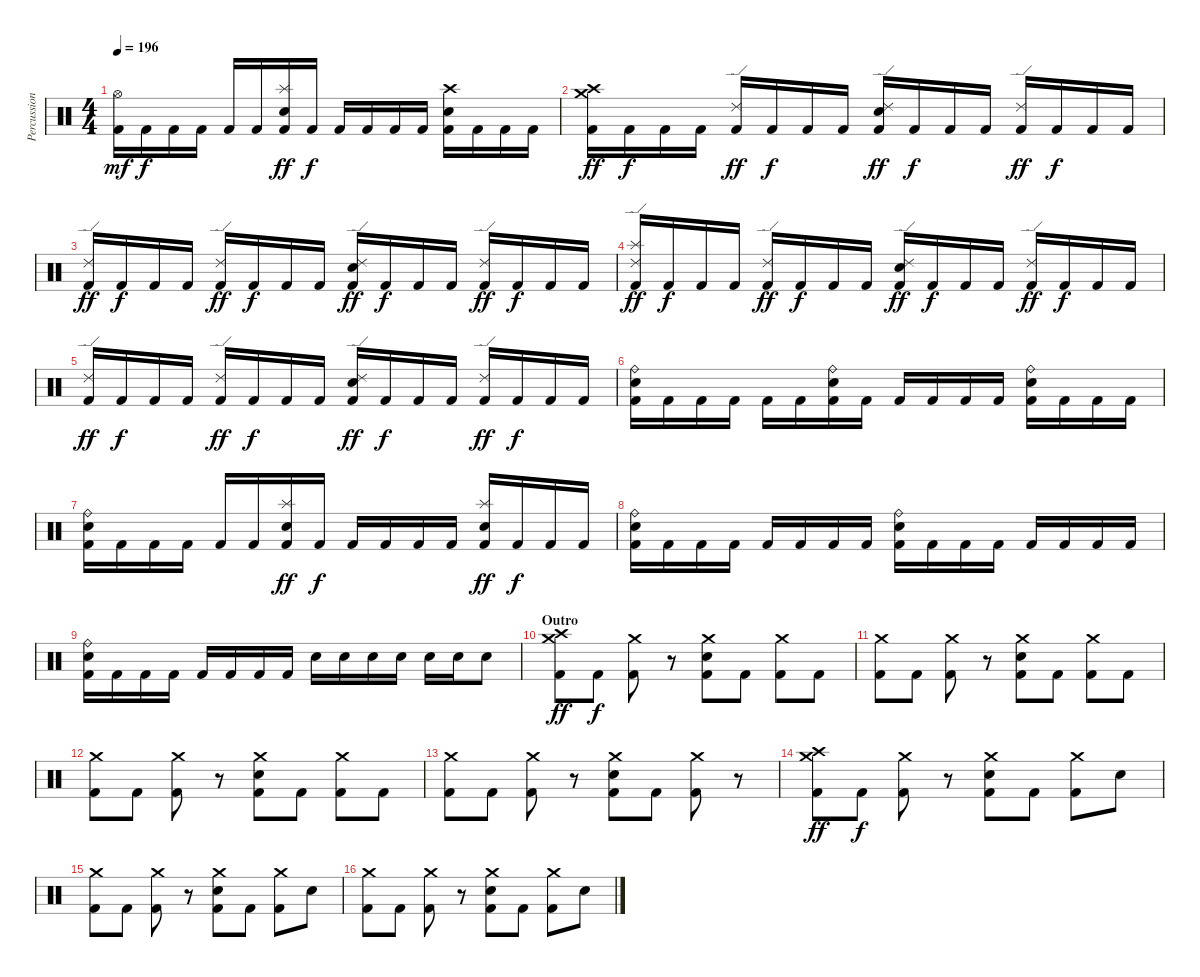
\track ("Percussions" "Percussion") {instrument percussion}
\staff {score}
\articulation defaults
\ts (4 4)
\tempo 196
\clef neutral
\ks c
("Hi-Hat (open)" "Kick (hit) 2").16{dy mf} "Kick (hit) 2".16{dy f} "Kick (hit) 2".16 "Kick (hit) 2".16 "Kick (hit) 2".16 "Kick (hit) 2".16 ("Splash (hit)" "Electric Snare (hit)" "Kick (hit) 2").16{dy ff} "Kick (hit) 2".16{dy f} "Kick (hit) 2".16 "Kick (hit) 2".16 "Kick (hit) 2".16 "Kick (hit) 2".16 ("Crash high (hit)" "Electric Snare (hit)" "Kick (hit) 2").16 "Kick (hit) 2".16 "Kick (hit) 2".16 "Kick (hit) 2".16 |
("Crash high (hit)" "Crash medium (hit)" "Kick (hit) 2").16{dy ff} "Kick (hit) 2".16{dy f} "Kick (hit) 2".16 "Kick (hit) 2".16 ("Ride (edge) 2" "Kick (hit) 2").16{dy ff} "Kick (hit) 2".16{dy f} "Kick (hit) 2".16 "Kick (hit) 2".16 ("Ride (edge) 2" "Electric Snare (hit)" "Kick (hit) 2").16{dy ff} "Kick (hit) 2".16{dy f} "Kick (hit) 2".16 "Kick (hit) 2".16 ("Ride (edge) 2" "Kick (hit) 2").16{dy ff} "Kick (hit) 2".16{dy f} "Kick (hit) 2".16 "Kick (hit) 2".16 |
("Ride (edge) 2" "Kick (hit) 2").16{dy ff} "Kick (hit) 2".16{dy f} "Kick (hit) 2".16 "Kick (hit) 2".16 ("Ride (edge) 2" "Kick (hit) 2").16{dy ff} "Kick (hit) 2".16{dy f} "Kick (hit) 2".16 "Kick (hit) 2".16 ("Ride (edge) 2" "Electric Snare (hit)" "Kick (hit) 2").16{dy ff} "Kick (hit) 2".16{dy f} "Kick (hit) 2".16 "Kick (hit) 2".16 ("Ride (edge) 2" "Kick (hit) 2").16{dy ff} "Kick (hit) 2".16{dy f} "Kick (hit) 2".16 "Kick (hit) 2".16 |
("Splash (hit)" "Ride (edge) 2" "Kick (hit) 2").16{dy ff} "Kick (hit) 2".16{dy f} "Kick (hit) 2".16 "Kick (hit) 2".16 ("Ride (edge) 2" "Kick (hit) 2").16{dy ff} "Kick (hit) 2".16{dy f} "Kick (hit) 2".16 "Kick (hit) 2".16 ("Ride (edge) 2" "Electric Snare (hit)" "Kick (hit) 2").16{dy ff} "Kick (hit) 2".16{dy f} "Kick (hit) 2".16 "Kick (hit) 2".16 ("Ride (edge) 2" "Kick (hit) 2").16{dy ff} "Kick (hit) 2".16{dy f} "Kick (hit) 2".16 "Kick (hit) 2".16 |
("Ride (edge) 2" "Kick (hit) 2").16{dy ff} "Kick (hit) 2".16{dy f} "Kick (hit) 2".16 "Kick (hit) 2".16 ("Ride (edge) 2" "Kick (hit) 2").16{dy ff} "Kick (hit) 2".16{dy f} "Kick (hit) 2".16 "Kick (hit) 2".16 ("Ride (edge) 2" "Electric Snare (hit)" "Kick (hit) 2").16{dy ff} "Kick (hit) 2".16{dy f} "Kick (hit) 2".16 "Kick (hit) 2".16 ("Ride (edge) 2" "Kick (hit) 2").16{dy ff} "Kick (hit) 2".16{dy f} "Kick (hit) 2".16 "Kick (hit) 2".16 |
("Ride (bell)" "Electric Snare (hit)" "Kick (hit) 2").16 "Kick (hit) 2".16 "Kick (hit) 2".16 "Kick (hit) 2".16 "Kick (hit) 2".16 "Kick (hit) 2".16 ("Ride (bell)" "Electric Snare (hit)" "Kick (hit) 2").16 "Kick (hit) 2".16 "Kick (hit) 2".16 "Kick (hit) 2".16 "Kick (hit) 2".16 "Kick (hit) 2".16 ("Ride (bell)" "Electric Snare (hit)" "Kick (hit) 2").16 "Kick (hit) 2".16 "Kick (hit) 2".16 "Kick (hit) 2".16 |
("Ride (bell)" "Electric Snare (hit)" "Kick (hit) 2").16 "Kick (hit) 2".16 "Kick (hit) 2".16 "Kick (hit) 2".16 "Kick (hit) 2".16 "Kick (hit) 2".16 ("Splash (hit)" "Electric Snare (hit)" "Kick (hit) 2").16{dy ff} "Kick (hit) 2".16{dy f} "Kick (hit) 2".16 "Kick (hit) 2".16 "Kick (hit) 2".16 "Kick (hit) 2".16 ("Splash (hit)" "Electric Snare (hit)" "Kick (hit) 2").16{dy ff} "Kick (hit) 2".16{dy f} "Kick (hit) 2".16 "Kick (hit) 2".16 |
("Ride (bell)" "Electric Snare (hit)" "Kick (hit) 2").16 "Kick (hit) 2".16 "Kick (hit) 2".16 "Kick (hit) 2".16 "Kick (hit) 2".16 "Kick (hit) 2".16 "Kick (hit) 2".16 "Kick (hit) 2".16 ("Ride (bell)" "Electric Snare (hit)" "Kick (hit) 2").16 "Kick (hit) 2".16 "Kick (hit) 2".16 "Kick (hit) 2".16 "Kick (hit) 2".16 "Kick (hit) 2".16 "Kick (hit) 2".16 "Kick (hit) 2".16 |
("Ride (bell)" "Electric Snare (hit)" "Kick (hit) 2").16 "Kick (hit) 2".16 "Kick (hit) 2".16 "Kick (hit) 2".16 "Kick (hit) 2".16 "Kick (hit) 2".16 "Kick (hit) 2".16 "Kick (hit) 2".16 "Electric Snare (hit)".16 "Electric Snare (hit)".16 "Electric Snare (hit)".16 "Electric Snare (hit)".16 "Electric Snare (hit)".16 "Electric Snare (hit)".16 "Electric Snare (hit)".8 |
\section ("" "Outro")
("Crash high (hit)" "Crash medium (hit)" "Kick (hit) 2").8{dy ff} "Kick (hit) 2".8{dy f} ("Crash medium (hit)" "Kick (hit) 2").8 r.8 ("Crash medium (hit)" "Electric Snare (hit)" "Kick (hit) 2").8 "Kick (hit) 2".8 ("Crash medium (hit)" "Kick (hit) 2").8 "Kick (hit) 2".8 |
("Crash medium (hit)" "Kick (hit) 2").8 "Kick (hit) 2".8 ("Crash medium (hit)" "Kick (hit) 2").8 r.8 ("Crash medium (hit)" "Electric Snare (hit)" "Kick (hit) 2").8 "Kick (hit) 2".8 ("Crash medium (hit)" "Kick (hit) 2").8 "Kick (hit) 2".8 |
("Crash medium (hit)" "Kick (hit) 2").8 "Kick (hit) 2".8 ("Crash medium (hit)" "Kick (hit) 2").8 r.8 ("Crash medium (hit)" "Electric Snare (hit)" "Kick (hit) 2").8 "Kick (hit) 2".8 ("Crash medium (hit)" "Kick (hit) 2").8 "Kick (hit) 2".8 |
("Crash medium (hit)" "Kick (hit) 2").8 "Kick (hit) 2".8 ("Crash medium (hit)" "Kick (hit) 2").8 r.8 ("Crash medium (hit)" "Electric Snare (hit)" "Kick (hit) 2").8 "Kick (hit) 2".8 ("Crash medium (hit)" "Kick (hit) 2").8 r.8 |
("Crash high (hit)" "Crash medium (hit)" "Kick (hit) 2").8{dy ff} "Kick (hit) 2".8{dy f} ("Crash medium (hit)" "Kick (hit) 2").8 r.8 ("Crash medium (hit)" "Electric Snare (hit)" "Kick (hit) 2").8 "Kick (hit) 2".8 ("Crash medium (hit)" "Kick (hit) 2").8 "Electric Snare (hit)".8 |
("Crash medium (hit)" "Kick (hit) 2").8 "Kick (hit) 2".8 ("Crash medium (hit)" "Kick (hit) 2").8 r.8 ("Crash medium (hit)" "Electric Snare (hit)" "Kick (hit) 2").8 "Kick (hit) 2".8 ("Crash medium (hit)" "Kick (hit) 2").8 "Electric Snare (hit)".8 |
("Crash medium (hit)" "Kick (hit) 2").8 "Kick (hit) 2".8 ("Crash medium (hit)" "Kick (hit) 2").8 r.8 ("Crash medium (hit)" "Electric Snare (hit)" "Kick (hit) 2").8 "Kick (hit) 2".8 ("Crash medium (hit)" "Kick (hit) 2").8 "Electric Snare (hit)".8
